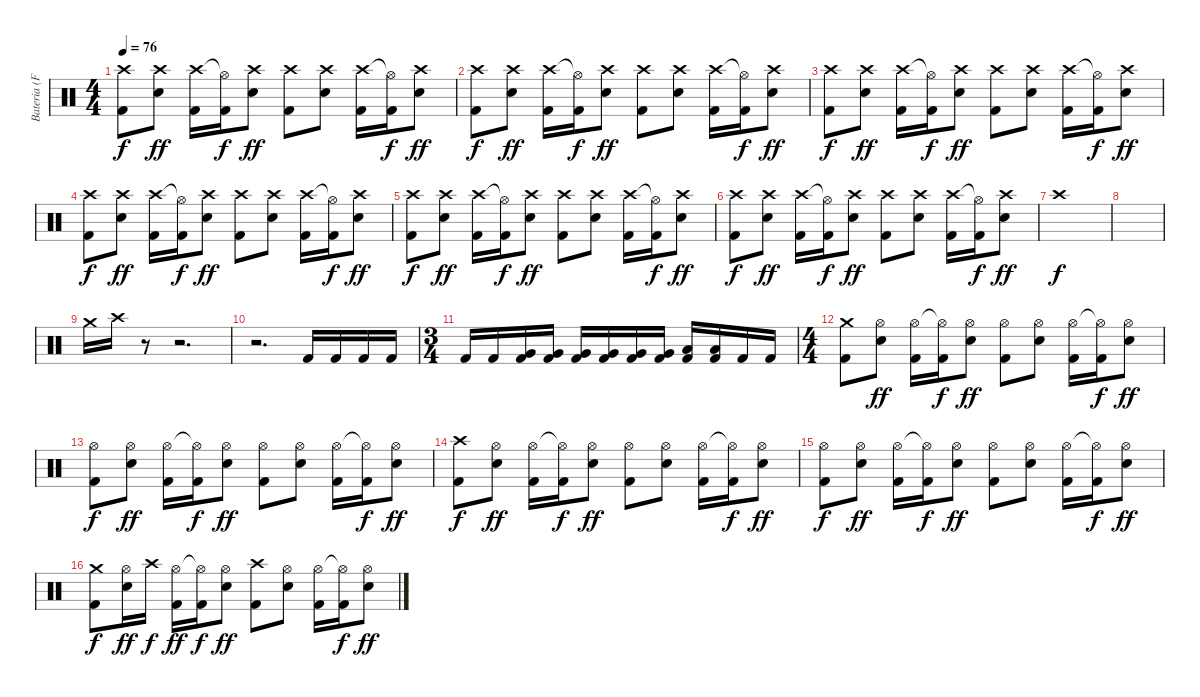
\track ("Bateria (Fê Lemos)" "Bateria (F") {instrument percussion}
\staff {score}
\articulation defaults
\ts (4 4)
\tempo 76
\clef neutral
\ks c
("Crash high (hit)" "Kick (hit) 2").8{dy f} ("Crash high (hit)" "Electric Snare (hit)").8{dy ff} ("Crash high (hit)" "Kick (hit) 2").16 ("Hi-Hat (open)"{t} "Kick (hit) 2").16{dy f} ("Crash high (hit)" "Electric Snare (hit)").8{dy ff} ("Crash high (hit)" "Kick (hit) 2").8 ("Crash high (hit)" "Electric Snare (hit)").8 ("Crash high (hit)" "Kick (hit) 2").16 ("Hi-Hat (open)"{t} "Kick (hit) 2").16{dy f} ("Crash high (hit)" "Electric Snare (hit)").8{dy ff} |
("Crash high (hit)" "Kick (hit) 2").8{dy f} ("Crash high (hit)" "Electric Snare (hit)").8{dy ff} ("Crash high (hit)" "Kick (hit) 2").16 ("Hi-Hat (open)"{t} "Kick (hit) 2").16{dy f} ("Crash high (hit)" "Electric Snare (hit)").8{dy ff} ("Crash high (hit)" "Kick (hit) 2").8 ("Crash high (hit)" "Electric Snare (hit)").8 ("Crash high (hit)" "Kick (hit) 2").16 ("Hi-Hat (open)"{t} "Kick (hit) 2").16{dy f} ("Crash high (hit)" "Electric Snare (hit)").8{dy ff} |
("Crash high (hit)" "Kick (hit) 2").8{dy f} ("Crash high (hit)" "Electric Snare (hit)").8{dy ff} ("Crash high (hit)" "Kick (hit) 2").16 ("Hi-Hat (open)"{t} "Kick (hit) 2").16{dy f} ("Crash high (hit)" "Electric Snare (hit)").8{dy ff} ("Crash high (hit)" "Kick (hit) 2").8 ("Crash high (hit)" "Electric Snare (hit)").8 ("Crash high (hit)" "Kick (hit) 2").16 ("Hi-Hat (open)"{t} "Kick (hit) 2").16{dy f} ("Crash high (hit)" "Electric Snare (hit)").8{dy ff} |
("Crash high (hit)" "Kick (hit) 2").8{dy f} ("Crash high (hit)" "Electric Snare (hit)").8{dy ff} ("Crash high (hit)" "Kick (hit) 2").16 ("Hi-Hat (open)"{t} "Kick (hit) 2").16{dy f} ("Crash high (hit)" "Electric Snare (hit)").8{dy ff} ("Crash high (hit)" "Kick (hit) 2").8 ("Crash high (hit)" "Electric Snare (hit)").8 ("Crash high (hit)" "Kick (hit) 2").16 ("Hi-Hat (open)"{t} "Kick (hit) 2").16{dy f} ("Crash high (hit)" "Electric Snare (hit)").8{dy ff} |
("Crash high (hit)" "Kick (hit) 2").8{dy f} ("Crash high (hit)" "Electric Snare (hit)").8{dy ff} ("Crash high (hit)" "Kick (hit) 2").16 ("Hi-Hat (open)"{t} "Kick (hit) 2").16{dy f} ("Crash high (hit)" "Electric Snare (hit)").8{dy ff} ("Crash high (hit)" "Kick (hit) 2").8 ("Crash high (hit)" "Electric Snare (hit)").8 ("Crash high (hit)" "Kick (hit) 2").16 ("Hi-Hat (open)"{t} "Kick (hit) 2").16{dy f} ("Crash high (hit)" "Electric Snare (hit)").8{dy ff} |
("Crash high (hit)" "Kick (hit) 2").8{dy f} ("Crash high (hit)" "Electric Snare (hit)").8{dy ff} ("Crash high (hit)" "Kick (hit) 2").16 ("Hi-Hat (open)"{t} "Kick (hit) 2").16{dy f} ("Crash high (hit)" "Electric Snare (hit)").8{dy ff} ("Crash high (hit)" "Kick (hit) 2").8 ("Crash high (hit)" "Electric Snare (hit)").8 ("Crash high (hit)" "Kick (hit) 2").16 ("Hi-Hat (open)"{t} "Kick (hit) 2").16{dy f} ("Crash high (hit)" "Electric Snare (hit)").8{dy ff} |
"Crash high (hit)".1{dy f} |
|
"Crash medium (hit)".16 "Crash high (hit)".16 r.8 r.2{d} |
r.2{d} "Kick (hit) 2".16 "Kick (hit) 2".16 "Kick (hit) 2".16 "Kick (hit) 2".16 |
\ts (3 4)
"Kick (hit) 2".16 "Kick (hit) 2".16 ("Very Low Tom (hit)" "Kick (hit) 2").16 ("Very Low Tom (hit)" "Kick (hit) 2").16 ("Very Low Tom (hit)" "Kick (hit) 2").16 ("Very Low Tom (hit)" "Kick (hit) 2").16 ("Very Low Tom (hit)" "Kick (hit) 2").16 ("Very Low Tom (hit)" "Kick (hit) 2").16 ("Low Floor Tom (hit)" "Kick (hit) 2").16 ("Low Floor Tom (hit)" "Kick (hit) 2").16 "Kick (hit) 2".16 "Kick (hit) 2".16 |
\ts (4 4)
("Crash medium (hit)" "Kick (hit) 2").8 ("Hi-Hat (open)" "Electric Snare (hit)").8{dy ff} ("Hi-Hat (open)" "Kick (hit) 2").16 ("Hi-Hat (open)"{t} "Kick (hit) 2").16{dy f} ("Hi-Hat (open)" "Electric Snare (hit)").8{dy ff} ("Hi-Hat (open)" "Kick (hit) 2").8 ("Hi-Hat (open)" "Electric Snare (hit)").8 ("Hi-Hat (open)" "Kick (hit) 2").16 ("Hi-Hat (open)"{t} "Kick (hit) 2").16{dy f} ("Hi-Hat (open)" "Electric Snare (hit)").8{dy ff} |
("Hi-Hat (open)" "Kick (hit) 2").8{dy f} ("Hi-Hat (open)" "Electric Snare (hit)").8{dy ff} ("Hi-Hat (open)" "Kick (hit) 2").16 ("Hi-Hat (open)"{t} "Kick (hit) 2").16{dy f} ("Hi-Hat (open)" "Electric Snare (hit)").8{dy ff} ("Hi-Hat (open)" "Kick (hit) 2").8 ("Hi-Hat (open)" "Electric Snare (hit)").8 ("Hi-Hat (open)" "Kick (hit) 2").16 ("Hi-Hat (open)"{t} "Kick (hit) 2").16{dy f} ("Hi-Hat (open)" "Electric Snare (hit)").8{dy ff} |
("Crash high (hit)" "Kick (hit) 2").8{dy f} ("Hi-Hat (open)" "Electric Snare (hit)").8{dy ff} ("Hi-Hat (open)" "Kick (hit) 2").16 ("Hi-Hat (open)"{t} "Kick (hit) 2").16{dy f} ("Hi-Hat (open)" "Electric Snare (hit)").8{dy ff} ("Hi-Hat (open)" "Kick (hit) 2").8 ("Hi-Hat (open)" "Electric Snare (hit)").8 ("Hi-Hat (open)" "Kick (hit) 2").16 ("Hi-Hat (open)"{t} "Kick (hit) 2").16{dy f} ("Hi-Hat (open)" "Electric Snare (hit)").8{dy ff} |
("Hi-Hat (open)" "Kick (hit) 2").8{dy f} ("Hi-Hat (open)" "Electric Snare (hit)").8{dy ff} ("Hi-Hat (open)" "Kick (hit) 2").16 ("Hi-Hat (open)"{t} "Kick (hit) 2").16{dy f} ("Hi-Hat (open)" "Electric Snare (hit)").8{dy ff} ("Hi-Hat (open)" "Kick (hit) 2").8 ("Hi-Hat (open)" "Electric Snare (hit)").8 ("Hi-Hat (open)" "Kick (hit) 2").16 ("Hi-Hat (open)"{t} "Kick (hit) 2").16{dy f} ("Hi-Hat (open)" "Electric Snare (hit)").8{dy ff} |
("Crash medium (hit)" "Kick (hit) 2").8{dy f} ("Hi-Hat (open)" "Electric Snare (hit)").16{dy ff} "Crash high (hit)".16{dy f} ("Hi-Hat (open)" "Kick (hit) 2").16{dy ff} ("Hi-Hat (open)"{t} "Kick (hit) 2").16{dy f} ("Hi-Hat (open)" "Electric Snare (hit)").8{dy ff} ("Crash high (hit)" "Kick (hit) 2").8 ("Hi-Hat (open)" "Electric Snare (hit)").8 ("Hi-Hat (open)" "Kick (hit) 2").16 ("Hi-Hat (open)"{t} "Kick (hit) 2").16{dy f} ("Hi-Hat (open)" "Electric Snare (hit)").8{dy ff}
